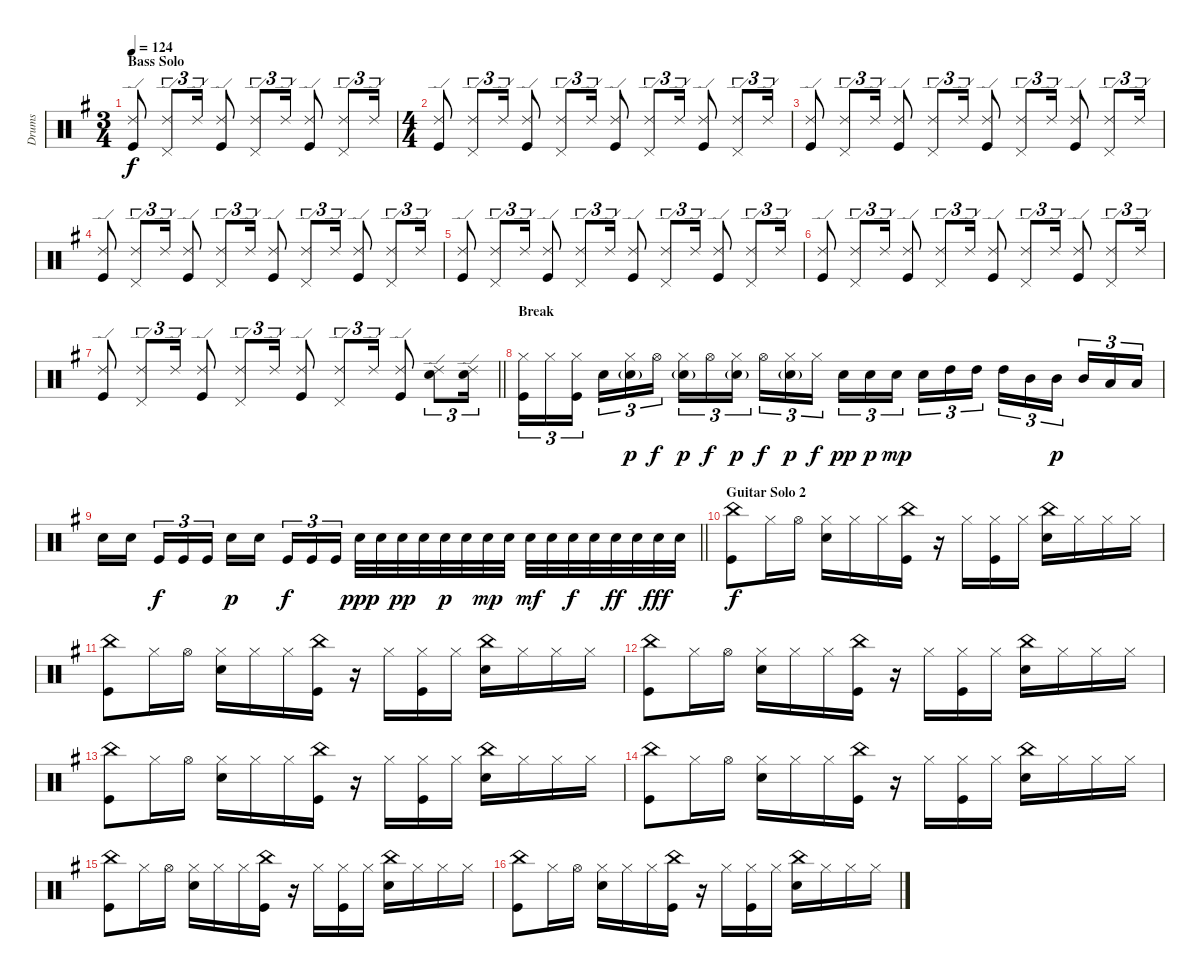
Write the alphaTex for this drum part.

\track ("Drums" "Drums") {instrument percussion}
\staff {score}
\articulation defaults
\ts (3 4)
\section ("" "Bass Solo")
\tempo 124
\clef neutral
\ks eminor
("Ride (edge) 2" "Kick (hit)").8{dy f} ("Ride (edge) 2" "Pedal Hi-Hat (hit)").8{tu (3 2)} "Ride (edge) 2".16{tu (3 2)} ("Ride (edge) 2" "Kick (hit)").8 ("Ride (edge) 2" "Pedal Hi-Hat (hit)").8{tu (3 2)} "Ride (edge) 2".16{tu (3 2)} ("Ride (edge) 2" "Kick (hit)").8 ("Ride (edge) 2" "Pedal Hi-Hat (hit)").8{tu (3 2)} "Ride (edge) 2".16{tu (3 2)} |
\ts (4 4)
("Ride (edge) 2" "Kick (hit)").8 ("Ride (edge) 2" "Pedal Hi-Hat (hit)").8{tu (3 2)} "Ride (edge) 2".16{tu (3 2)} ("Ride (edge) 2" "Kick (hit)").8 ("Ride (edge) 2" "Pedal Hi-Hat (hit)").8{tu (3 2)} "Ride (edge) 2".16{tu (3 2)} ("Ride (edge) 2" "Kick (hit)").8 ("Ride (edge) 2" "Pedal Hi-Hat (hit)").8{tu (3 2)} "Ride (edge) 2".16{tu (3 2)} ("Ride (edge) 2" "Kick (hit)").8 ("Ride (edge) 2" "Pedal Hi-Hat (hit)").8{tu (3 2)} "Ride (edge) 2".16{tu (3 2)} |
("Ride (edge) 2" "Kick (hit)").8 ("Ride (edge) 2" "Pedal Hi-Hat (hit)").8{tu (3 2)} "Ride (edge) 2".16{tu (3 2)} ("Ride (edge) 2" "Kick (hit)").8 ("Ride (edge) 2" "Pedal Hi-Hat (hit)").8{tu (3 2)} "Ride (edge) 2".16{tu (3 2)} ("Ride (edge) 2" "Kick (hit)").8 ("Ride (edge) 2" "Pedal Hi-Hat (hit)").8{tu (3 2)} "Ride (edge) 2".16{tu (3 2)} ("Ride (edge) 2" "Kick (hit)").8 ("Ride (edge) 2" "Pedal Hi-Hat (hit)").8{tu (3 2)} "Ride (edge) 2".16{tu (3 2)} |
("Ride (edge) 2" "Kick (hit)").8 ("Ride (edge) 2" "Pedal Hi-Hat (hit)").8{tu (3 2)} "Ride (edge) 2".16{tu (3 2)} ("Ride (edge) 2" "Kick (hit)").8 ("Ride (edge) 2" "Pedal Hi-Hat (hit)").8{tu (3 2)} "Ride (edge) 2".16{tu (3 2)} ("Ride (edge) 2" "Kick (hit)").8 ("Ride (edge) 2" "Pedal Hi-Hat (hit)").8{tu (3 2)} "Ride (edge) 2".16{tu (3 2)} ("Ride (edge) 2" "Kick (hit)").8 ("Ride (edge) 2" "Pedal Hi-Hat (hit)").8{tu (3 2)} "Ride (edge) 2".16{tu (3 2)} |
("Ride (edge) 2" "Kick (hit)").8 ("Ride (edge) 2" "Pedal Hi-Hat (hit)").8{tu (3 2)} "Ride (edge) 2".16{tu (3 2)} ("Ride (edge) 2" "Kick (hit)").8 ("Ride (edge) 2" "Pedal Hi-Hat (hit)").8{tu (3 2)} "Ride (edge) 2".16{tu (3 2)} ("Ride (edge) 2" "Kick (hit)").8 ("Ride (edge) 2" "Pedal Hi-Hat (hit)").8{tu (3 2)} "Ride (edge) 2".16{tu (3 2)} ("Ride (edge) 2" "Kick (hit)").8 ("Ride (edge) 2" "Pedal Hi-Hat (hit)").8{tu (3 2)} "Ride (edge) 2".16{tu (3 2)} |
("Ride (edge) 2" "Kick (hit)").8 ("Ride (edge) 2" "Pedal Hi-Hat (hit)").8{tu (3 2)} "Ride (edge) 2".16{tu (3 2)} ("Ride (edge) 2" "Kick (hit)").8 ("Ride (edge) 2" "Pedal Hi-Hat (hit)").8{tu (3 2)} "Ride (edge) 2".16{tu (3 2)} ("Ride (edge) 2" "Kick (hit)").8 ("Ride (edge) 2" "Pedal Hi-Hat (hit)").8{tu (3 2)} "Ride (edge) 2".16{tu (3 2)} ("Ride (edge) 2" "Kick (hit)").8 ("Ride (edge) 2" "Pedal Hi-Hat (hit)").8{tu (3 2)} "Ride (edge) 2".16{tu (3 2)} |
\barLineRight lightlight
("Ride (edge) 2" "Kick (hit)").8 ("Ride (edge) 2" "Pedal Hi-Hat (hit)").8{tu (3 2)} "Ride (edge) 2".16{tu (3 2)} ("Ride (edge) 2" "Kick (hit)").8 ("Ride (edge) 2" "Pedal Hi-Hat (hit)").8{tu (3 2)} "Ride (edge) 2".16{tu (3 2)} ("Ride (edge) 2" "Kick (hit)").8 ("Ride (edge) 2" "Pedal Hi-Hat (hit)").8{tu (3 2)} "Ride (edge) 2".16{tu (3 2)} ("Ride (edge) 2" "Kick (hit)").8 ("Ride (edge) 2" "Electric Snare (hit)").8{tu (3 2)} ("Ride (edge) 2" "Electric Snare (hit)").16{tu (3 2)} |
\section ("" "Break")
("Hi-Hat (closed)" "Kick (hit)").16{tu (3 2)} "Hi-Hat (closed)".16{tu (3 2)} ("Hi-Hat (closed)" "Kick (hit)").16{tu (3 2)} "Electric Snare (hit)".16{tu (3 2)} ("Hi-Hat (closed)" "Electric Snare (hit)"{g}).16{tu (3 2) dy p} "Hi-Hat (open)".16{tu (3 2) dy f} ("Hi-Hat (closed)" "Electric Snare (hit)"{g}).16{tu (3 2) dy p} "Hi-Hat (open)".16{tu (3 2) dy f} ("Hi-Hat (closed)" "Electric Snare (hit)"{g}).16{tu (3 2) dy p} "Hi-Hat (open)".16{tu (3 2) dy f} ("Hi-Hat (closed)" "Electric Snare (hit)"{g}).16{tu (3 2) dy p} "Hi-Hat (closed)".16{tu (3 2) dy f} "Electric Snare (hit)".16{tu (3 2) dy pp} "Electric Snare (hit)".16{tu (3 2) dy p} "Electric Snare (hit)".16{tu (3 2) dy mp} "Electric Snare (hit)".16{tu (3 2)} "High Tom (hit)".16{tu (3 2)} "High Tom (hit)".16{tu (3 2)} "High Tom (hit)".16{tu (3 2)} "Mid Tom (hit)".16{tu (3 2)} "Mid Tom (hit)".16{tu (3 2) dy p} "Mid Tom (hit)".16{tu (3 2)} "Low Tom (hit)".16{tu (3 2)} "Low Tom (hit)".16{tu (3 2)} |
\barLineRight lightlight "Electric Snare (hit)".16 "Electric Snare (hit)".16 "Kick (hit)".16{tu (3 2) dy f} "Kick (hit)".16{tu (3 2)} "Kick (hit)".16{tu (3 2)} "Electric Snare (hit)".16{dy p} "Electric Snare (hit)".16 "Kick (hit)".16{tu (3 2) dy f} "Kick (hit)".16{tu (3 2)} "Kick (hit)".16{tu (3 2)} "Electric Snare (hit)".32{dy ppp} "Electric Snare (hit)".32 "Electric Snare (hit)".32{dy pp} "Electric Snare (hit)".32 "Electric Snare (hit)".32{dy p} "Electric Snare (hit)".32 "Electric Snare (hit)".32{dy mp} "Electric Snare (hit)".32 "Electric Snare (hit)".32{dy mf} "Electric Snare (hit)".32 "Electric Snare (hit)".32{dy f} "Electric Snare (hit)".32 "Electric Snare (hit)".32{dy ff} "Electric Snare (hit)".32 "Electric Snare (hit)".32{dy fff} "Electric Snare (hit)".32
|
\section ("" "Guitar Solo 2")
("China (hit)" "Kick (hit)").8{dy f} "Hi-Hat (closed)".16 "Hi-Hat (open)".16 ("Hi-Hat (closed)" "Electric Snare (hit)").16 "Hi-Hat (closed)".16 "Hi-Hat (closed)".16 ("China (hit)" "Kick (hit)").16 r.16 "Hi-Hat (closed)".16 ("Hi-Hat (closed)" "Kick (hit)").16 "Hi-Hat (closed)".16 ("China (hit)" "Electric Snare (hit)").16 "Hi-Hat (closed)".16 "Hi-Hat (closed)".16 "Hi-Hat (closed)".16 |
("China (hit)" "Kick (hit)").8 "Hi-Hat (closed)".16 "Hi-Hat (open)".16 ("Hi-Hat (closed)" "Electric Snare (hit)").16 "Hi-Hat (closed)".16 "Hi-Hat (closed)".16 ("China (hit)" "Kick (hit)").16 r.16 "Hi-Hat (closed)".16 ("Hi-Hat (closed)" "Kick (hit)").16 "Hi-Hat (closed)".16 ("China (hit)" "Electric Snare (hit)").16 "Hi-Hat (closed)".16 "Hi-Hat (closed)".16 "Hi-Hat (closed)".16 |
("China (hit)" "Kick (hit)").8 "Hi-Hat (closed)".16 "Hi-Hat (open)".16 ("Hi-Hat (closed)" "Electric Snare (hit)").16 "Hi-Hat (closed)".16 "Hi-Hat (closed)".16 ("China (hit)" "Kick (hit)").16 r.16 "Hi-Hat (closed)".16 ("Hi-Hat (closed)" "Kick (hit)").16 "Hi-Hat (closed)".16 ("China (hit)" "Electric Snare (hit)").16 "Hi-Hat (closed)".16 "Hi-Hat (closed)".16 "Hi-Hat (closed)".16 |
("China (hit)" "Kick (hit)").8 "Hi-Hat (closed)".16 "Hi-Hat (open)".16 ("Hi-Hat (closed)" "Electric Snare (hit)").16 "Hi-Hat (closed)".16 "Hi-Hat (closed)".16 ("China (hit)" "Kick (hit)").16 r.16 "Hi-Hat (closed)".16 ("Hi-Hat (closed)" "Kick (hit)").16 "Hi-Hat (closed)".16 ("China (hit)" "Electric Snare (hit)").16 "Hi-Hat (closed)".16 "Hi-Hat (closed)".16 "Hi-Hat (closed)".16 |
("China (hit)" "Kick (hit)").8 "Hi-Hat (closed)".16 "Hi-Hat (open)".16 ("Hi-Hat (closed)" "Electric Snare (hit)").16 "Hi-Hat (closed)".16 "Hi-Hat (closed)".16 ("China (hit)" "Kick (hit)").16 r.16 "Hi-Hat (closed)".16 ("Hi-Hat (closed)" "Kick (hit)").16 "Hi-Hat (closed)".16 ("China (hit)" "Electric Snare (hit)").16 "Hi-Hat (closed)".16 "Hi-Hat (closed)".16 "Hi-Hat (closed)".16 |
("China (hit)" "Kick (hit)").8 "Hi-Hat (closed)".16 "Hi-Hat (open)".16 ("Hi-Hat (closed)" "Electric Snare (hit)").16 "Hi-Hat (closed)".16 "Hi-Hat (closed)".16 ("China (hit)" "Kick (hit)").16 r.16 "Hi-Hat (closed)".16 ("Hi-Hat (closed)" "Kick (hit)").16 "Hi-Hat (closed)".16 ("China (hit)" "Electric Snare (hit)").16 "Hi-Hat (closed)".16 "Hi-Hat (closed)".16 "Hi-Hat (closed)".16 |
("China (hit)" "Kick (hit)").8 "Hi-Hat (closed)".16 "Hi-Hat (open)".16 ("Hi-Hat (closed)" "Electric Snare (hit)").16 "Hi-Hat (closed)".16 "Hi-Hat (closed)".16 ("China (hit)" "Kick (hit)").16 r.16 "Hi-Hat (closed)".16 ("Hi-Hat (closed)" "Kick (hit)").16 "Hi-Hat (closed)".16 ("China (hit)" "Electric Snare (hit)").16 "Hi-Hat (closed)".16 "Hi-Hat (closed)".16 "Hi-Hat (closed)".16
